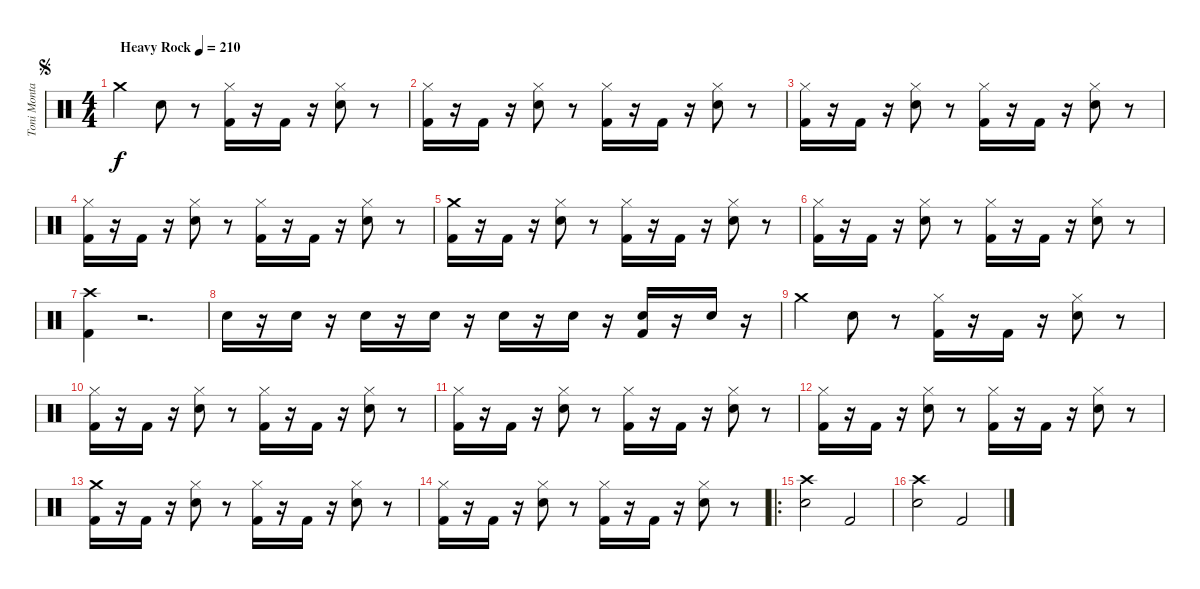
\track ("Toni Montalvo" "Toni Monta") {solo instrument percussion}
\staff {score}
\articulation defaults
\ts (4 4)
\jump segno
\tempo (210 "Heavy Rock")
\clef neutral
\ks c "Crash medium (hit)".4{dy f} "Electric Snare (hit)".8
r.8 ("Kick (hit) 2" "Hi-Hat (closed)").16 r.16 "Kick (hit) 2".16 r.16 ("Electric Snare (hit)" "Hi-Hat (closed)").8 r.8 |
("Kick (hit) 2" "Hi-Hat (closed)").16 r.16 "Kick (hit) 2".16 r.16 ("Electric Snare (hit)" "Hi-Hat (closed)").8 r.8 ("Kick (hit) 2" "Hi-Hat (closed)").16 r.16 "Kick (hit) 2".16 r.16 ("Electric Snare (hit)" "Hi-Hat (closed)").8 r.8 |
("Kick (hit) 2" "Hi-Hat (closed)").16 r.16 "Kick (hit) 2".16 r.16 ("Electric Snare (hit)" "Hi-Hat (closed)").8 r.8 ("Kick (hit) 2" "Hi-Hat (closed)").16 r.16 "Kick (hit) 2".16 r.16 ("Electric Snare (hit)" "Hi-Hat (closed)").8 r.8 |
("Kick (hit) 2" "Hi-Hat (closed)").16 r.16 "Kick (hit) 2".16 r.16 ("Electric Snare (hit)" "Hi-Hat (closed)").8 r.8 ("Kick (hit) 2" "Hi-Hat (closed)").16 r.16 "Kick (hit) 2".16 r.16 ("Electric Snare (hit)" "Hi-Hat (closed)").8 r.8 |
("Kick (hit) 2" "Crash medium (hit)").16 r.16 "Kick (hit) 2".16 r.16 ("Electric Snare (hit)" "Hi-Hat (closed)").8 r.8 ("Kick (hit) 2" "Hi-Hat (closed)").16 r.16 "Kick (hit) 2".16 r.16 ("Electric Snare (hit)" "Hi-Hat (closed)").8 r.8 |
("Kick (hit) 2" "Hi-Hat (closed)").16 r.16 "Kick (hit) 2".16 r.16 ("Electric Snare (hit)" "Hi-Hat (closed)").8 r.8 ("Kick (hit) 2" "Hi-Hat (closed)").16 r.16 "Kick (hit) 2".16 r.16 ("Electric Snare (hit)" "Hi-Hat (closed)").8 r.8 |
("Kick (hit) 2" "Crash high (hit)").4 r.2{d} |
"Electric Snare (hit)".16 r.16 "Electric Snare (hit)".16 r.16 "Electric Snare (hit)".16 r.16 "Electric Snare (hit)".16 r.16 "Electric Snare (hit)".16 r.16 "Electric Snare (hit)".16 r.16 ("Kick (hit) 2" "Electric Snare (hit)").16 r.16 "Electric Snare (hit)".16 r.16 |
"Crash medium (hit)".4 "Electric Snare (hit)".8 r.8 ("Kick (hit) 2" "Hi-Hat (closed)").16 r.16 "Kick (hit) 2".16 r.16 ("Electric Snare (hit)" "Hi-Hat (closed)").8 r.8 |
("Kick (hit) 2" "Hi-Hat (closed)").16 r.16 "Kick (hit) 2".16 r.16 ("Electric Snare (hit)" "Hi-Hat (closed)").8 r.8 ("Kick (hit) 2" "Hi-Hat (closed)").16 r.16 "Kick (hit) 2".16 r.16 ("Electric Snare (hit)" "Hi-Hat (closed)").8 r.8 |
("Kick (hit) 2" "Hi-Hat (closed)").16 r.16 "Kick (hit) 2".16 r.16 ("Electric Snare (hit)" "Hi-Hat (closed)").8 r.8 ("Kick (hit) 2" "Hi-Hat (closed)").16 r.16 "Kick (hit) 2".16 r.16 ("Electric Snare (hit)" "Hi-Hat (closed)").8 r.8 |
("Kick (hit) 2" "Hi-Hat (closed)").16 r.16 "Kick (hit) 2".16 r.16 ("Electric Snare (hit)" "Hi-Hat (closed)").8 r.8 ("Kick (hit) 2" "Hi-Hat (closed)").16 r.16 "Kick (hit) 2".16 r.16 ("Electric Snare (hit)" "Hi-Hat (closed)").8 r.8 |
("Kick (hit) 2" "Crash medium (hit)").16 r.16 "Kick (hit) 2".16 r.16 ("Electric Snare (hit)" "Hi-Hat (closed)").8 r.8 ("Kick (hit) 2" "Hi-Hat (closed)").16 r.16 "Kick (hit) 2".16 r.16 ("Electric Snare (hit)" "Hi-Hat (closed)").8 r.8 |
("Kick (hit) 2" "Hi-Hat (closed)").16 r.16 "Kick (hit) 2".16 r.16 ("Electric Snare (hit)" "Hi-Hat (closed)").8 r.8 ("Kick (hit) 2" "Hi-Hat (closed)").16 r.16 "Kick (hit) 2".16 r.16 ("Electric Snare (hit)" "Hi-Hat (closed)").8 r.8 |
\ro
("Crash high (hit)" "Electric Snare (hit)").2 "Kick (hit) 2".2 |
("Crash high (hit)" "Electric Snare (hit)").2 "Kick (hit) 2".2
